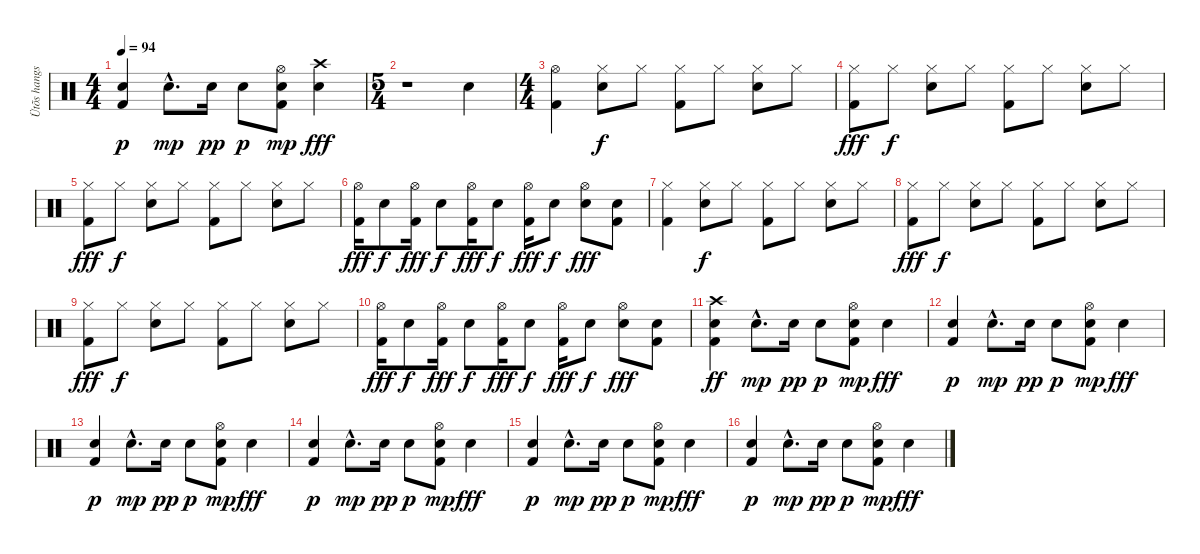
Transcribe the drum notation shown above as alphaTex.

\track ("Ütõs hangszer" "Ütõs hangs") {instrument percussion}
\staff {score}
\articulation defaults
\ts (4 4)
\tempo 94
\clef neutral
\ks c
("Electric Snare (hit)" "Kick (hit) 2").4{dy p} "Electric Snare (hit)"{hac}.8{d dy mp} "Electric Snare (hit)".16{dy pp} "Electric Snare (hit)".8{dy p} ("Electric Snare (hit)" "Kick (hit) 2" "Hi-Hat (open)").8{dy mp} ("Electric Snare (hit)" "Crash high (hit)").4{dy fff} |
\ts (5 4)
r.1 "Electric Snare (hit)".4 |
\ts (4 4)
("Kick (hit) 2" "Hi-Hat (open)").4 ("Electric Snare (hit)" "Hi-Hat (closed)").8{dy f} "Hi-Hat (closed)".8 ("Kick (hit) 2" "Hi-Hat (closed)").8 "Hi-Hat (closed)".8 ("Electric Snare (hit)" "Hi-Hat (closed)").8 "Hi-Hat (closed)".8 |
("Kick (hit) 2" "Hi-Hat (closed)").8{dy fff} "Hi-Hat (closed)".8{dy f} ("Electric Snare (hit)" "Hi-Hat (closed)").8 "Hi-Hat (closed)".8 ("Kick (hit) 2" "Hi-Hat (closed)").8 "Hi-Hat (closed)".8 ("Electric Snare (hit)" "Hi-Hat (closed)").8 "Hi-Hat (closed)".8 |
("Kick (hit) 2" "Hi-Hat (closed)").8{dy fff} "Hi-Hat (closed)".8{dy f} ("Electric Snare (hit)" "Hi-Hat (closed)").8 "Hi-Hat (closed)".8 ("Kick (hit) 2" "Hi-Hat (closed)").8 "Hi-Hat (closed)".8 ("Electric Snare (hit)" "Hi-Hat (closed)").8 "Hi-Hat (closed)".8 |
("Kick (hit) 2" "Hi-Hat (open)").16{dy fff} "Electric Snare (hit)".8{dy f} ("Kick (hit) 2" "Hi-Hat (open)").16{dy fff} "Electric Snare (hit)".8{dy f} ("Kick (hit) 2" "Hi-Hat (open)").16{dy fff} "Electric Snare (hit)".8{dy f} ("Kick (hit) 2" "Hi-Hat (open)").16{dy fff} "Electric Snare (hit)".8{dy f} ("Electric Snare (hit)" "Hi-Hat (open)").8{dy fff} ("Electric Snare (hit)" "Kick (hit) 2").8 |
("Kick (hit) 2" "Hi-Hat (closed)").4 ("Electric Snare (hit)" "Hi-Hat (closed)").8{dy f} "Hi-Hat (closed)".8 ("Kick (hit) 2" "Hi-Hat (closed)").8 "Hi-Hat (closed)".8 ("Electric Snare (hit)" "Hi-Hat (closed)").8 "Hi-Hat (closed)".8 |
("Kick (hit) 2" "Hi-Hat (closed)").8{dy fff} "Hi-Hat (closed)".8{dy f} ("Electric Snare (hit)" "Hi-Hat (closed)").8 "Hi-Hat (closed)".8 ("Kick (hit) 2" "Hi-Hat (closed)").8 "Hi-Hat (closed)".8 ("Electric Snare (hit)" "Hi-Hat (closed)").8 "Hi-Hat (closed)".8 |
("Kick (hit) 2" "Hi-Hat (closed)").8{dy fff} "Hi-Hat (closed)".8{dy f} ("Electric Snare (hit)" "Hi-Hat (closed)").8 "Hi-Hat (closed)".8 ("Kick (hit) 2" "Hi-Hat (closed)").8 "Hi-Hat (closed)".8 ("Electric Snare (hit)" "Hi-Hat (closed)").8 "Hi-Hat (closed)".8 |
("Kick (hit) 2" "Hi-Hat (open)").16{dy fff} "Electric Snare (hit)".8{dy f} ("Kick (hit) 2" "Hi-Hat (open)").16{dy fff} "Electric Snare (hit)".8{dy f} ("Kick (hit) 2" "Hi-Hat (open)").16{dy fff} "Electric Snare (hit)".8{dy f} ("Kick (hit) 2" "Hi-Hat (open)").16{dy fff} "Electric Snare (hit)".8{dy f} ("Electric Snare (hit)" "Hi-Hat (open)").8{dy fff} ("Electric Snare (hit)" "Kick (hit) 2").8 |
("Electric Snare (hit)" "Kick (hit) 2" "Crash high (hit)").4{dy ff} "Electric Snare (hit)"{hac}.8{d dy mp} "Electric Snare (hit)".16{dy pp} "Electric Snare (hit)".8{dy p} ("Electric Snare (hit)" "Kick (hit) 2" "Hi-Hat (open)").8{dy mp} "Electric Snare (hit)".4{dy fff} |
("Electric Snare (hit)" "Kick (hit) 2").4{dy p} "Electric Snare (hit)"{hac}.8{d dy mp} "Electric Snare (hit)".16{dy pp} "Electric Snare (hit)".8{dy p} ("Electric Snare (hit)" "Kick (hit) 2" "Hi-Hat (open)").8{dy mp} "Electric Snare (hit)".4{dy fff} |
("Electric Snare (hit)" "Kick (hit) 2").4{dy p} "Electric Snare (hit)"{hac}.8{d dy mp} "Electric Snare (hit)".16{dy pp} "Electric Snare (hit)".8{dy p} ("Electric Snare (hit)" "Kick (hit) 2" "Hi-Hat (open)").8{dy mp} "Electric Snare (hit)".4{dy fff} |
("Electric Snare (hit)" "Kick (hit) 2").4{dy p} "Electric Snare (hit)"{hac}.8{d dy mp} "Electric Snare (hit)".16{dy pp} "Electric Snare (hit)".8{dy p} ("Electric Snare (hit)" "Kick (hit) 2" "Hi-Hat (open)").8{dy mp} "Electric Snare (hit)".4{dy fff} |
("Electric Snare (hit)" "Kick (hit) 2").4{dy p} "Electric Snare (hit)"{hac}.8{d dy mp} "Electric Snare (hit)".16{dy pp} "Electric Snare (hit)".8{dy p} ("Electric Snare (hit)" "Kick (hit) 2" "Hi-Hat (open)").8{dy mp} "Electric Snare (hit)".4{dy fff} |
("Electric Snare (hit)" "Kick (hit) 2").4{dy p} "Electric Snare (hit)"{hac}.8{d dy mp} "Electric Snare (hit)".16{dy pp} "Electric Snare (hit)".8{dy p} ("Electric Snare (hit)" "Kick (hit) 2" "Hi-Hat (open)").8{dy mp} "Electric Snare (hit)".4{dy fff}
